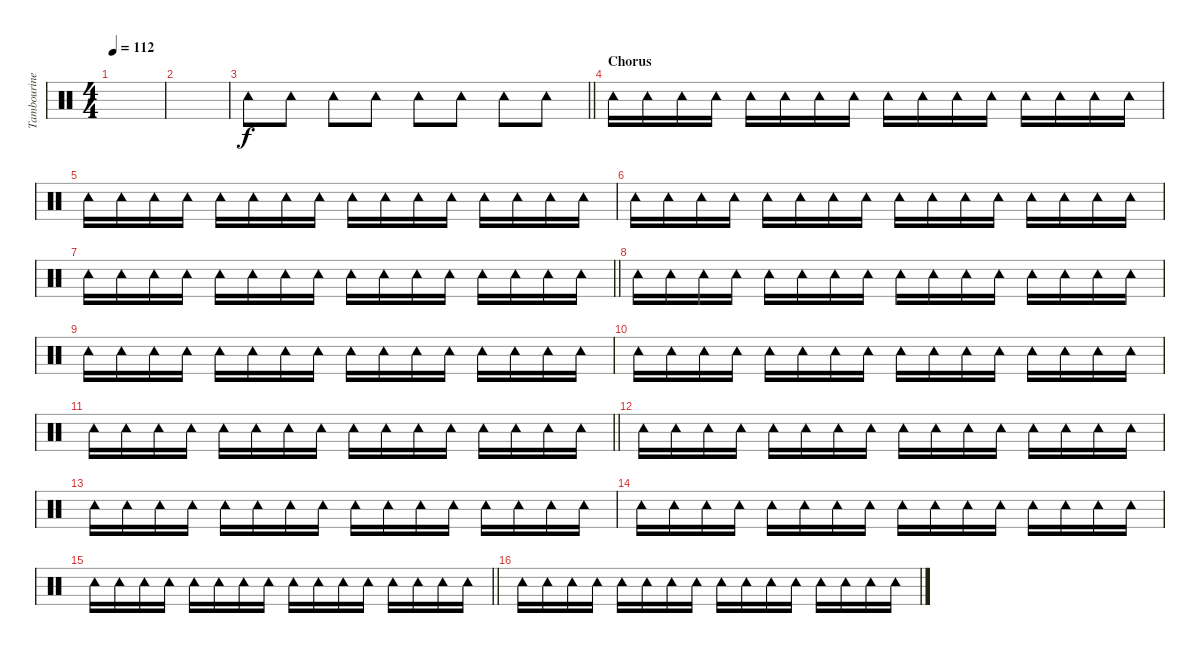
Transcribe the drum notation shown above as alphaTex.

\track ("Tambourine" "Tambourine") {instrument percussion}
\staff {score}
\articulation defaults
\ts (4 4)
\tempo 112
\clef neutral
\ks c
|
|
\barLineRight lightlight "Tambourine (hit)".8 "Tambourine (hit)".8 "Tambourine (hit)".8 "Tambourine (hit)".8 "Tambourine (hit)".8 "Tambourine (hit)".8 "Tambourine (hit)".8 "Tambourine (hit)".8
|
\section ("" "Chorus")
"Tambourine (hit)".16 "Tambourine (hit)".16 "Tambourine (hit)".16 "Tambourine (hit)".16 "Tambourine (hit)".16 "Tambourine (hit)".16 "Tambourine (hit)".16 "Tambourine (hit)".16 "Tambourine (hit)".16 "Tambourine (hit)".16 "Tambourine (hit)".16 "Tambourine (hit)".16 "Tambourine (hit)".16 "Tambourine (hit)".16 "Tambourine (hit)".16 "Tambourine (hit)".16 |
"Tambourine (hit)".16 "Tambourine (hit)".16 "Tambourine (hit)".16 "Tambourine (hit)".16 "Tambourine (hit)".16 "Tambourine (hit)".16 "Tambourine (hit)".16 "Tambourine (hit)".16 "Tambourine (hit)".16 "Tambourine (hit)".16 "Tambourine (hit)".16 "Tambourine (hit)".16 "Tambourine (hit)".16 "Tambourine (hit)".16 "Tambourine (hit)".16 "Tambourine (hit)".16 |
"Tambourine (hit)".16 "Tambourine (hit)".16 "Tambourine (hit)".16 "Tambourine (hit)".16 "Tambourine (hit)".16 "Tambourine (hit)".16 "Tambourine (hit)".16 "Tambourine (hit)".16 "Tambourine (hit)".16 "Tambourine (hit)".16 "Tambourine (hit)".16 "Tambourine (hit)".16 "Tambourine (hit)".16 "Tambourine (hit)".16 "Tambourine (hit)".16 "Tambourine (hit)".16 |
\barLineRight lightlight "Tambourine (hit)".16 "Tambourine (hit)".16 "Tambourine (hit)".16 "Tambourine (hit)".16 "Tambourine (hit)".16 "Tambourine (hit)".16 "Tambourine (hit)".16 "Tambourine (hit)".16 "Tambourine (hit)".16 "Tambourine (hit)".16 "Tambourine (hit)".16 "Tambourine (hit)".16 "Tambourine (hit)".16 "Tambourine (hit)".16 "Tambourine (hit)".16 "Tambourine (hit)".16
|
"Tambourine (hit)".16 "Tambourine (hit)".16 "Tambourine (hit)".16 "Tambourine (hit)".16 "Tambourine (hit)".16 "Tambourine (hit)".16 "Tambourine (hit)".16 "Tambourine (hit)".16 "Tambourine (hit)".16 "Tambourine (hit)".16 "Tambourine (hit)".16 "Tambourine (hit)".16 "Tambourine (hit)".16 "Tambourine (hit)".16 "Tambourine (hit)".16 "Tambourine (hit)".16 |
"Tambourine (hit)".16 "Tambourine (hit)".16 "Tambourine (hit)".16 "Tambourine (hit)".16 "Tambourine (hit)".16 "Tambourine (hit)".16 "Tambourine (hit)".16 "Tambourine (hit)".16 "Tambourine (hit)".16 "Tambourine (hit)".16 "Tambourine (hit)".16 "Tambourine (hit)".16 "Tambourine (hit)".16 "Tambourine (hit)".16 "Tambourine (hit)".16 "Tambourine (hit)".16 |
"Tambourine (hit)".16 "Tambourine (hit)".16 "Tambourine (hit)".16 "Tambourine (hit)".16 "Tambourine (hit)".16 "Tambourine (hit)".16 "Tambourine (hit)".16 "Tambourine (hit)".16 "Tambourine (hit)".16 "Tambourine (hit)".16 "Tambourine (hit)".16 "Tambourine (hit)".16 "Tambourine (hit)".16 "Tambourine (hit)".16 "Tambourine (hit)".16 "Tambourine (hit)".16 |
\barLineRight lightlight "Tambourine (hit)".16 "Tambourine (hit)".16 "Tambourine (hit)".16 "Tambourine (hit)".16 "Tambourine (hit)".16 "Tambourine (hit)".16 "Tambourine (hit)".16 "Tambourine (hit)".16 "Tambourine (hit)".16 "Tambourine (hit)".16 "Tambourine (hit)".16 "Tambourine (hit)".16 "Tambourine (hit)".16 "Tambourine (hit)".16 "Tambourine (hit)".16 "Tambourine (hit)".16
|
"Tambourine (hit)".16 "Tambourine (hit)".16 "Tambourine (hit)".16 "Tambourine (hit)".16 "Tambourine (hit)".16 "Tambourine (hit)".16 "Tambourine (hit)".16 "Tambourine (hit)".16 "Tambourine (hit)".16 "Tambourine (hit)".16 "Tambourine (hit)".16 "Tambourine (hit)".16 "Tambourine (hit)".16 "Tambourine (hit)".16 "Tambourine (hit)".16 "Tambourine (hit)".16 |
"Tambourine (hit)".16 "Tambourine (hit)".16 "Tambourine (hit)".16 "Tambourine (hit)".16 "Tambourine (hit)".16 "Tambourine (hit)".16 "Tambourine (hit)".16 "Tambourine (hit)".16 "Tambourine (hit)".16 "Tambourine (hit)".16 "Tambourine (hit)".16 "Tambourine (hit)".16 "Tambourine (hit)".16 "Tambourine (hit)".16 "Tambourine (hit)".16 "Tambourine (hit)".16 |
"Tambourine (hit)".16 "Tambourine (hit)".16 "Tambourine (hit)".16 "Tambourine (hit)".16 "Tambourine (hit)".16 "Tambourine (hit)".16 "Tambourine (hit)".16 "Tambourine (hit)".16 "Tambourine (hit)".16 "Tambourine (hit)".16 "Tambourine (hit)".16 "Tambourine (hit)".16 "Tambourine (hit)".16 "Tambourine (hit)".16 "Tambourine (hit)".16 "Tambourine (hit)".16 |
\barLineRight lightlight "Tambourine (hit)".16 "Tambourine (hit)".16 "Tambourine (hit)".16 "Tambourine (hit)".16 "Tambourine (hit)".16 "Tambourine (hit)".16 "Tambourine (hit)".16 "Tambourine (hit)".16 "Tambourine (hit)".16 "Tambourine (hit)".16 "Tambourine (hit)".16 "Tambourine (hit)".16 "Tambourine (hit)".16 "Tambourine (hit)".16 "Tambourine (hit)".16 "Tambourine (hit)".16
|
"Tambourine (hit)".16 "Tambourine (hit)".16 "Tambourine (hit)".16 "Tambourine (hit)".16 "Tambourine (hit)".16 "Tambourine (hit)".16 "Tambourine (hit)".16 "Tambourine (hit)".16 "Tambourine (hit)".16 "Tambourine (hit)".16 "Tambourine (hit)".16 "Tambourine (hit)".16 "Tambourine (hit)".16 "Tambourine (hit)".16 "Tambourine (hit)".16 "Tambourine (hit)".16
